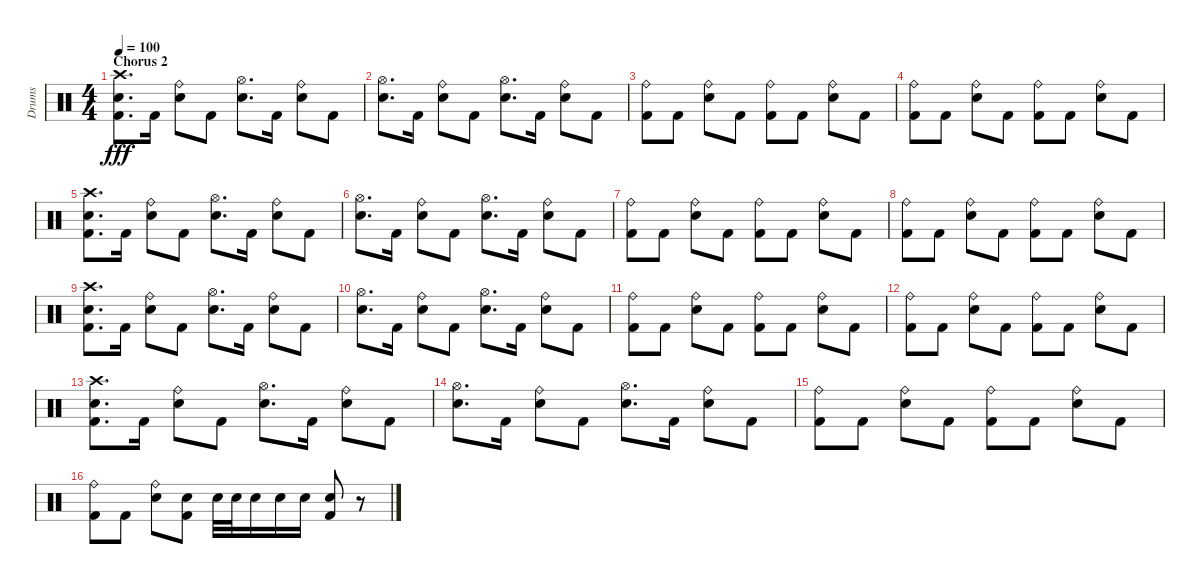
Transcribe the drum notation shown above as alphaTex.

\track ("Drums" "Drums") {instrument percussion}
\staff {score}
\articulation defaults
\ts (4 4)
\section ("" "Chorus 2")
\tempo 100
\clef neutral
\ks c
("Crash high (hit)" "Electric Snare (hit)" "Kick (hit) 2").8{d dy fff} "Kick (hit) 2".16 ("Ride (bell)" "Electric Snare (hit)").8 "Kick (hit) 2".8 ("Hi-Hat (open)" "Electric Snare (hit)").8{d} "Kick (hit) 2".16 ("Ride (bell)" "Electric Snare (hit)").8 "Kick (hit) 2".8 |
("Hi-Hat (open)" "Electric Snare (hit)").8{d} "Kick (hit) 2".16 ("Ride (bell)" "Electric Snare (hit)").8 "Kick (hit) 2".8 ("Hi-Hat (open)" "Electric Snare (hit)").8{d} "Kick (hit) 2".16 ("Ride (bell)" "Electric Snare (hit)").8 "Kick (hit) 2".8 |
("Ride (bell)" "Kick (hit) 2").8 "Kick (hit) 2".8 ("Ride (bell)" "Electric Snare (hit)").8 "Kick (hit) 2".8 ("Ride (bell)" "Kick (hit) 2").8 "Kick (hit) 2".8 ("Ride (bell)" "Electric Snare (hit)").8 "Kick (hit) 2".8 |
("Ride (bell)" "Kick (hit) 2").8 "Kick (hit) 2".8 ("Ride (bell)" "Electric Snare (hit)").8 "Kick (hit) 2".8 ("Ride (bell)" "Kick (hit) 2").8 "Kick (hit) 2".8 ("Ride (bell)" "Electric Snare (hit)").8 "Kick (hit) 2".8 |
("Crash high (hit)" "Electric Snare (hit)" "Kick (hit) 2").8{d} "Kick (hit) 2".16 ("Ride (bell)" "Electric Snare (hit)").8 "Kick (hit) 2".8 ("Hi-Hat (open)" "Electric Snare (hit)").8{d} "Kick (hit) 2".16 ("Ride (bell)" "Electric Snare (hit)").8 "Kick (hit) 2".8 |
("Hi-Hat (open)" "Electric Snare (hit)").8{d} "Kick (hit) 2".16 ("Ride (bell)" "Electric Snare (hit)").8 "Kick (hit) 2".8 ("Hi-Hat (open)" "Electric Snare (hit)").8{d} "Kick (hit) 2".16 ("Ride (bell)" "Electric Snare (hit)").8 "Kick (hit) 2".8 |
("Ride (bell)" "Kick (hit) 2").8 "Kick (hit) 2".8 ("Ride (bell)" "Electric Snare (hit)").8 "Kick (hit) 2".8 ("Ride (bell)" "Kick (hit) 2").8 "Kick (hit) 2".8 ("Ride (bell)" "Electric Snare (hit)").8 "Kick (hit) 2".8 |
("Ride (bell)" "Kick (hit) 2").8 "Kick (hit) 2".8 ("Ride (bell)" "Electric Snare (hit)").8 "Kick (hit) 2".8 ("Ride (bell)" "Kick (hit) 2").8 "Kick (hit) 2".8 ("Ride (bell)" "Electric Snare (hit)").8 "Kick (hit) 2".8 |
("Crash high (hit)" "Electric Snare (hit)" "Kick (hit) 2").8{d} "Kick (hit) 2".16 ("Ride (bell)" "Electric Snare (hit)").8 "Kick (hit) 2".8 ("Hi-Hat (open)" "Electric Snare (hit)").8{d} "Kick (hit) 2".16 ("Ride (bell)" "Electric Snare (hit)").8 "Kick (hit) 2".8 |
("Hi-Hat (open)" "Electric Snare (hit)").8{d} "Kick (hit) 2".16 ("Ride (bell)" "Electric Snare (hit)").8 "Kick (hit) 2".8 ("Hi-Hat (open)" "Electric Snare (hit)").8{d} "Kick (hit) 2".16 ("Ride (bell)" "Electric Snare (hit)").8 "Kick (hit) 2".8 |
("Ride (bell)" "Kick (hit) 2").8 "Kick (hit) 2".8 ("Ride (bell)" "Electric Snare (hit)").8 "Kick (hit) 2".8 ("Ride (bell)" "Kick (hit) 2").8 "Kick (hit) 2".8 ("Ride (bell)" "Electric Snare (hit)").8 "Kick (hit) 2".8 |
("Ride (bell)" "Kick (hit) 2").8 "Kick (hit) 2".8 ("Ride (bell)" "Electric Snare (hit)").8 "Kick (hit) 2".8 ("Ride (bell)" "Kick (hit) 2").8 "Kick (hit) 2".8 ("Ride (bell)" "Electric Snare (hit)").8 "Kick (hit) 2".8 |
("Crash high (hit)" "Electric Snare (hit)" "Kick (hit) 2").8{d} "Kick (hit) 2".16 ("Ride (bell)" "Electric Snare (hit)").8 "Kick (hit) 2".8 ("Hi-Hat (open)" "Electric Snare (hit)").8{d} "Kick (hit) 2".16 ("Ride (bell)" "Electric Snare (hit)").8 "Kick (hit) 2".8 |
("Hi-Hat (open)" "Electric Snare (hit)").8{d} "Kick (hit) 2".16 ("Ride (bell)" "Electric Snare (hit)").8 "Kick (hit) 2".8 ("Hi-Hat (open)" "Electric Snare (hit)").8{d} "Kick (hit) 2".16 ("Ride (bell)" "Electric Snare (hit)").8 "Kick (hit) 2".8 |
("Ride (bell)" "Kick (hit) 2").8 "Kick (hit) 2".8 ("Ride (bell)" "Electric Snare (hit)").8 "Kick (hit) 2".8 ("Ride (bell)" "Kick (hit) 2").8 "Kick (hit) 2".8 ("Ride (bell)" "Electric Snare (hit)").8 "Kick (hit) 2".8 |
("Ride (bell)" "Kick (hit) 2").8 "Kick (hit) 2".8 ("Ride (bell)" "Electric Snare (hit)").8 ("Electric Snare (hit)" "Kick (hit) 2").8 "Electric Snare (hit)".32 "Electric Snare (hit)".32 "Electric Snare (hit)".16 "Electric Snare (hit)".16 "Electric Snare (hit)".16 ("Electric Snare (hit)" "Kick (hit) 2").8 r.8
